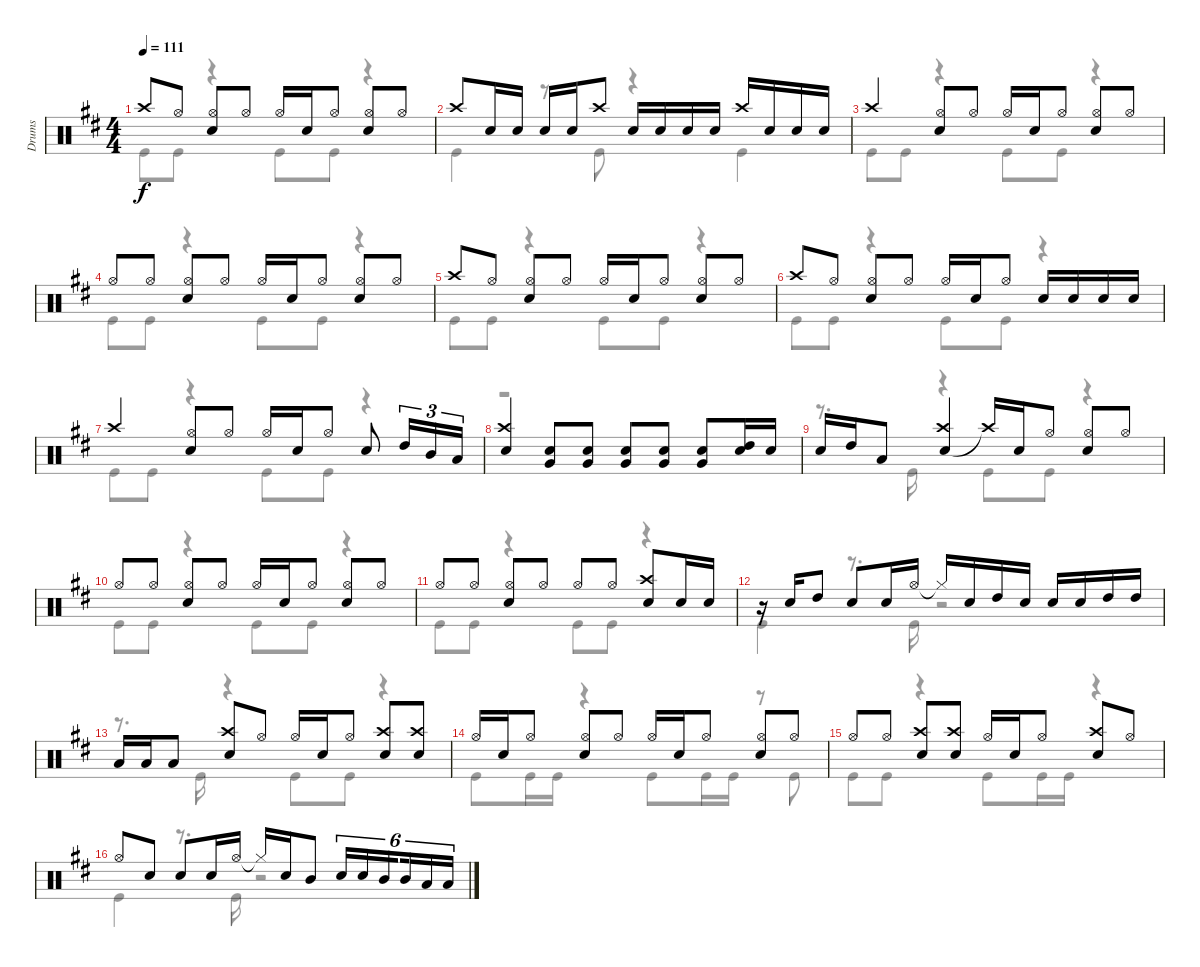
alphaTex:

\track ("Drums" "Drums") {instrument percussion}
\staff {score}
\articulation defaults
\voice
\ts (4 4)
\tempo 111
\clef neutral
\ks d "Crash high (hit)".8{dy f beam Up} "Hi-Hat (open)".8{beam Up}
("Snare (hit) 2" "Hi-Hat (open)").8{beam Up} "Hi-Hat (open)".8{beam Up} "Hi-Hat (open)".16{beam Up} "Snare (hit) 2".16{beam Up} "Hi-Hat (open)".8{beam Up} ("Hi-Hat (open)" "Snare (hit) 2").8{beam Up} "Hi-Hat (open)".8{beam Up} |
"Crash high (hit)".8{beam Up} "Snare (hit) 2".16{beam Up} "Snare (hit) 2".16{beam Up} "Snare (hit) 2".16{beam Up} "Snare (hit) 2".16{beam Up} "Crash high (hit)".8{beam Up} "Snare (hit) 2".16{beam Up} "Snare (hit) 2".16{beam Up} "Snare (hit) 2".16{beam Up} "Snare (hit) 2".16{beam Up} "Crash high (hit)".16{beam Up} "Snare (hit) 2".16{beam Up} "Snare (hit) 2".16{beam Up} "Snare (hit) 2".16{beam Up} |
"Crash high (hit)".4{beam Up} ("Snare (hit) 2" "Hi-Hat (open)").8{beam Up} "Hi-Hat (open)".8{beam Up} "Hi-Hat (open)".16{beam Up} "Snare (hit) 2".16{beam Up} "Hi-Hat (open)".8{beam Up} ("Hi-Hat (open)" "Snare (hit) 2").8{beam Up} "Hi-Hat (open)".8{beam Up} |
"Hi-Hat (open)".8{beam Up} "Hi-Hat (open)".8{beam Up} ("Snare (hit) 2" "Hi-Hat (open)").8{beam Up} "Hi-Hat (open)".8{beam Up} "Hi-Hat (open)".16{beam Up} "Snare (hit) 2".16{beam Up} "Hi-Hat (open)".8{beam Up} ("Hi-Hat (open)" "Snare (hit) 2").8{beam Up} "Hi-Hat (open)".8{beam Up} |
"Crash high (hit)".8{beam Up} "Hi-Hat (open)".8{beam Up} ("Snare (hit) 2" "Hi-Hat (open)").8{beam Up} "Hi-Hat (open)".8{beam Up} "Hi-Hat (open)".16{beam Up} "Snare (hit) 2".16{beam Up} "Hi-Hat (open)".8{beam Up} ("Hi-Hat (open)" "Snare (hit) 2").8{beam Up} "Hi-Hat (open)".8{beam Up} |
"Crash high (hit)".8{beam Up} "Hi-Hat (open)".8{beam Up} ("Snare (hit) 2" "Hi-Hat (open)").8{beam Up} "Hi-Hat (open)".8{beam Up} "Hi-Hat (open)".16{beam Up} "Snare (hit) 2".16{beam Up} "Hi-Hat (open)".8{beam Up} "Snare (hit) 2".16{beam Up} "Snare (hit) 2".16{beam Up} "Snare (hit) 2".16{beam Up} "Snare (hit) 2".16{beam Up} |
"Crash high (hit)".4{beam Up} ("Snare (hit) 2" "Hi-Hat (open)").8{beam Up} "Hi-Hat (open)".8{beam Up} "Hi-Hat (open)".16{beam Up} "Snare (hit) 2".16{beam Up} "Hi-Hat (open)".8{beam Up} "Snare (hit) 2".8{beam Up} "High Tom (hit)".16{tu (3 2) beam Up} "Mid Tom (hit)".16{tu (3 2) beam Up} "Low Tom (hit)".16{tu (3 2) beam Up} |
("Snare (hit) 2" "Crash high (hit)").4{beam Up} ("Snare (hit) 2" "Very Low Tom (hit)").8{beam Up} ("Snare (hit) 2" "Very Low Tom (hit)").8{beam Up} ("Snare (hit) 2" "Very Low Tom (hit)").8{beam Up} ("Snare (hit) 2" "Very Low Tom (hit)").8{beam Up} ("Snare (hit) 2" "Very Low Tom (hit)").8{beam Up} ("Snare (hit) 2" "High Tom (hit)").16{beam Up} "Snare (hit) 2".16{beam Up} |
"Snare (hit) 2".16{beam Up} "High Tom (hit)".16{beam Up} "Low Tom (hit)".8{beam Up} ("Snare (hit) 2" "Crash high (hit)").4{beam Up} "Crash high (hit)"{t}.16{beam Up} "Snare (hit) 2".16{beam Up} "Hi-Hat (open)".8{beam Up} ("Snare (hit) 2" "Hi-Hat (open)").8{beam Up} "Hi-Hat (open)".8{beam Up} |
"Hi-Hat (open)".8{beam Up} "Hi-Hat (open)".8{beam Up} ("Snare (hit) 2" "Hi-Hat (open)").8{beam Up} "Hi-Hat (open)".8{beam Up} "Hi-Hat (open)".16{beam Up} "Snare (hit) 2".16{beam Up} "Hi-Hat (open)".8{beam Up} ("Hi-Hat (open)" "Snare (hit) 2").8{beam Up} "Hi-Hat (open)".8{beam Up} |
"Hi-Hat (open)".8{beam Up} "Hi-Hat (open)".8{beam Up} ("Snare (hit) 2" "Hi-Hat (open)").8{beam Up} "Hi-Hat (open)".8{beam Up} "Hi-Hat (open)".8{beam Up} "Hi-Hat (open)".8{beam Up} ("Snare (hit) 2" "Crash high (hit)").8{beam Up} "Snare (hit) 2".16{beam Up} "Snare (hit) 2".16{beam Up} |
r.16 "Snare (hit) 2".16{beam Up} "High Tom (hit)".8{beam Up} "Snare (hit) 2".8{beam Up} "Snare (hit) 2".16{beam Up} "Hi-Hat (open)".16{beam Up} "Hi-Hat (closed)"{t}.16{beam Up} "Snare (hit) 2".16{beam Up} "High Tom (hit)".16{beam Up} "Snare (hit) 2".16{beam Up} "Snare (hit) 2".16{beam Up} "Snare (hit) 2".16{beam Up} "High Tom (hit)".16{beam Up} "High Tom (hit)".16{beam Up} |
"Low Tom (hit)".16{beam Up} "Low Tom (hit)".16{beam Up} "Low Tom (hit)".8{beam Up} ("Snare (hit) 2" "Crash high (hit)").8{beam Up} "Hi-Hat (open)".8{beam Up} "Hi-Hat (open)".16{beam Up} "Snare (hit) 2".16{beam Up} "Hi-Hat (open)".8{beam Up} ("Snare (hit) 2" "Crash high (hit)").8{beam Up} ("Crash high (hit)" "Snare (hit) 2").8{beam Up} |
"Hi-Hat (open)".16{beam Up} "Snare (hit) 2".16{beam Up} "Hi-Hat (open)".8{beam Up} ("Hi-Hat (open)" "Snare (hit) 2").8{beam Up} "Hi-Hat (open)".8{beam Up} "Hi-Hat (open)".16{beam Up} "Snare (hit) 2".16{beam Up} "Hi-Hat (open)".8{beam Up} ("Hi-Hat (open)" "Snare (hit) 2").8{beam Up} "Hi-Hat (open)".8{beam Up} |
"Hi-Hat (open)".8{beam Up} "Hi-Hat (open)".8{beam Up} ("Snare (hit) 2" "Crash high (hit)").8{beam Up} ("Crash high (hit)" "Snare (hit) 2").8{beam Up} "Hi-Hat (open)".16{beam Up} "Snare (hit) 2".16{beam Up} "Hi-Hat (open)".8{beam Up} ("Crash high (hit)" "Snare (hit) 2").8{beam Up} "Hi-Hat (open)".8{beam Up} |
"Hi-Hat (open)".8{beam Up} "Snare (hit) 2".8{beam Up} "Snare (hit) 2".8{beam Up} "Snare (hit) 2".16{beam Up} "Hi-Hat (open)".16{beam Up} "Hi-Hat (closed)"{t}.16{beam Up} "Snare (hit) 2".16{beam Up} "Mid Tom (hit)".8{beam Up} "Snare (hit) 2".16{tu (6 4) beam Up} "Snare (hit) 2".16{tu (6 4) beam Up} "Mid Tom (hit)".16{tu (6 4) beam Up beam splitsecondary} "Mid Tom (hit)".16{tu (6 4) beam Up} "Low Tom (hit)".16{tu (6 4) beam Up} "Low Tom (hit)".16{tu (6 4) beam Up}
\voice
\clef neutral
\ottava regular
\simile none
\ks d "Kick (hit)".8{dy f} "Kick (hit)".8
r.4 "Kick (hit)".8 "Kick (hit)".8 r.4 |
"Kick (hit)".4 r.8 "Kick (hit)".8 r.4 "Kick (hit)".4 |
"Kick (hit)".8 "Kick (hit)".8 r.4 "Kick (hit)".8 "Kick (hit)".8 r.4 |
"Kick (hit)".8 "Kick (hit)".8 r.4 "Kick (hit)".8 "Kick (hit)".8 r.4 |
"Kick (hit)".8 "Kick (hit)".8 r.4 "Kick (hit)".8 "Kick (hit)".8 r.4 |
"Kick (hit)".8 "Kick (hit)".8 r.4 "Kick (hit)".8 "Kick (hit)".8 r.4 |
"Kick (hit)".8 "Kick (hit)".8 r.4 "Kick (hit)".8 "Kick (hit)".8 r.4 |
r.1 |
r.8{d} "Kick (hit)".16 r.4 "Kick (hit)".8 "Kick (hit)".8 r.4 |
"Kick (hit)".8 "Kick (hit)".8 r.4 "Kick (hit)".8 "Kick (hit)".8 r.4 |
"Kick (hit)".8 "Kick (hit)".8 r.4 "Kick (hit)".8 "Kick (hit)".8 r.4 |
"Kick (hit)".4 r.8{d} "Kick (hit)".16 r.2 |
r.8{d} "Kick (hit)".16 r.4 "Kick (hit)".8 "Kick (hit)".8 r.4 |
"Kick (hit)".8 "Kick (hit)".16 "Kick (hit)".16 r.4 "Kick (hit)".8 "Kick (hit)".16 "Kick (hit)".16 r.8 "Kick (hit)".8 |
"Kick (hit)".8 "Kick (hit)".8 r.4 "Kick (hit)".8 "Kick (hit)".16 "Kick (hit)".16 r.4 |
"Kick (hit)".4 r.8{d} "Kick (hit)".16 r.2
